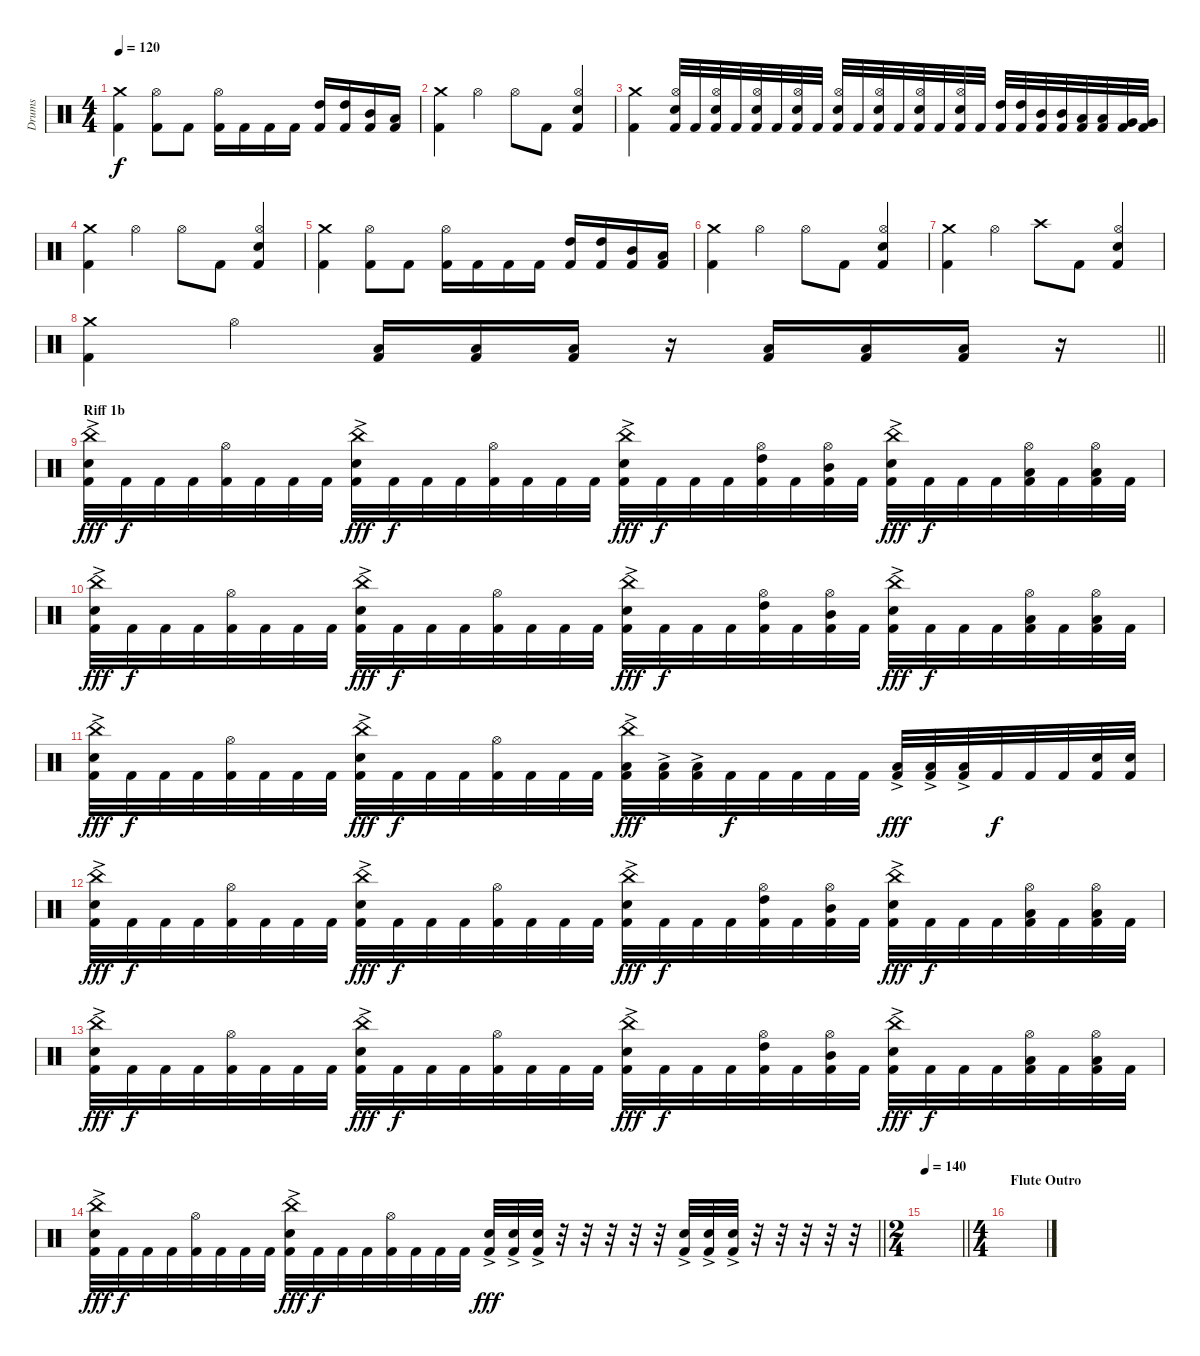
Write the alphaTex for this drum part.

\track ("Drums" "Drums") {instrument percussion}
\staff {score}
\articulation defaults
\ts (4 4)
\tempo 120
\clef neutral
\ks c
("Crash medium (hit)" "Kick (hit) 2").4{dy f} ("Hi-Hat (open)" "Kick (hit) 2").8 "Kick (hit) 2".8 ("Hi-Hat (open)" "Kick (hit) 2").16 "Kick (hit) 2".16 "Kick (hit) 2".16 "Kick (hit) 2".16 ("High Tom (hit)" "Kick (hit) 2").16 ("High Tom (hit)" "Kick (hit) 2").16 ("Mid Tom (hit)" "Kick (hit) 2").16 ("Low Tom (hit)" "Kick (hit) 2").16 |
("Crash medium (hit)" "Kick (hit) 2").4 "Hi-Hat (open)".4 "Hi-Hat (open)".8 "Kick (hit) 2".8 ("Hi-Hat (open)" "Electric Snare (hit)" "Kick (hit) 2").4 |
("Crash medium (hit)" "Kick (hit) 2").4 ("Hi-Hat (open)" "Electric Snare (hit)" "Kick (hit) 2").32 "Kick (hit) 2".32 ("Hi-Hat (open)" "Electric Snare (hit)" "Kick (hit) 2").32 "Kick (hit) 2".32 ("Hi-Hat (open)" "Electric Snare (hit)" "Kick (hit) 2").32 "Kick (hit) 2".32 ("Hi-Hat (open)" "Electric Snare (hit)" "Kick (hit) 2").32 "Kick (hit) 2".32 ("Hi-Hat (open)" "Electric Snare (hit)" "Kick (hit) 2").32 "Kick (hit) 2".32 ("Hi-Hat (open)" "Electric Snare (hit)" "Kick (hit) 2").32 "Kick (hit) 2".32 ("Hi-Hat (open)" "Electric Snare (hit)" "Kick (hit) 2").32 "Kick (hit) 2".32 ("Hi-Hat (open)" "Electric Snare (hit)" "Kick (hit) 2").32 "Kick (hit) 2".32 ("High Tom (hit)" "Kick (hit) 2").32 ("High Tom (hit)" "Kick (hit) 2").32 ("Mid Tom (hit)" "Kick (hit) 2").32 ("Mid Tom (hit)" "Kick (hit) 2").32 ("Low Tom (hit)" "Kick (hit) 2").32 ("Low Tom (hit)" "Kick (hit) 2").32 ("Very Low Tom (hit)" "Kick (hit) 2").32 ("Very Low Tom (hit)" "Kick (hit) 2").32 |
("Crash medium (hit)" "Kick (hit) 2").4 "Hi-Hat (open)".4 "Hi-Hat (open)".8 "Kick (hit) 2".8 ("Hi-Hat (open)" "Electric Snare (hit)" "Kick (hit) 2").4 |
("Crash medium (hit)" "Kick (hit) 2").4 ("Hi-Hat (open)" "Kick (hit) 2").8 "Kick (hit) 2".8 ("Hi-Hat (open)" "Kick (hit) 2").16 "Kick (hit) 2".16 "Kick (hit) 2".16 "Kick (hit) 2".16 ("High Tom (hit)" "Kick (hit) 2").16 ("High Tom (hit)" "Kick (hit) 2").16 ("Mid Tom (hit)" "Kick (hit) 2").16 ("Low Tom (hit)" "Kick (hit) 2").16 |
("Crash medium (hit)" "Kick (hit) 2").4 "Hi-Hat (open)".4 "Hi-Hat (open)".8 "Kick (hit) 2".8 ("Hi-Hat (open)" "Electric Snare (hit)" "Kick (hit) 2").4 |
("Crash medium (hit)" "Kick (hit) 2").4 "Hi-Hat (open)".4 "Crash high (hit)".8 "Kick (hit) 2".8 ("Hi-Hat (open)" "Electric Snare (hit)" "Kick (hit) 2").4 |
\barLineRight lightlight
("Crash medium (hit)" "Kick (hit) 2").4 "Hi-Hat (open)".4 ("Low Tom (hit)" "Kick (hit) 2").16 ("Low Tom (hit)" "Kick (hit) 2").16 ("Low Tom (hit)" "Kick (hit) 2").16 r.16 ("Low Tom (hit)" "Kick (hit) 2").16 ("Low Tom (hit)" "Kick (hit) 2").16 ("Low Tom (hit)" "Kick (hit) 2").16 r.16 |
\section ("" "Riff 1b")
("China (hit)"{ac} "Electric Snare (hit)" "Kick (hit) 2").32{dy fff} "Kick (hit) 2".32{dy f} "Kick (hit) 2".32 "Kick (hit) 2".32 ("Hi-Hat (open)" "Kick (hit) 2").32 "Kick (hit) 2".32 "Kick (hit) 2".32 "Kick (hit) 2".32 ("China (hit)"{ac} "Electric Snare (hit)" "Kick (hit) 2").32{dy fff} "Kick (hit) 2".32{dy f} "Kick (hit) 2".32 "Kick (hit) 2".32 ("Hi-Hat (open)" "Kick (hit) 2").32 "Kick (hit) 2".32 "Kick (hit) 2".32 "Kick (hit) 2".32 ("China (hit)"{ac} "Electric Snare (hit)" "Kick (hit) 2").32{dy fff} "Kick (hit) 2".32{dy f} "Kick (hit) 2".32 "Kick (hit) 2".32 ("Hi-Hat (open)" "High Tom (hit)" "Kick (hit) 2").32 "Kick (hit) 2".32 ("Hi-Hat (open)" "Mid Tom (hit)" "Kick (hit) 2").32 "Kick (hit) 2".32 ("China (hit)"{ac} "Electric Snare (hit)" "Kick (hit) 2").32{dy fff} "Kick (hit) 2".32{dy f} "Kick (hit) 2".32 "Kick (hit) 2".32 ("Hi-Hat (open)" "Low Tom (hit)" "Kick (hit) 2").32 "Kick (hit) 2".32 ("Hi-Hat (open)" "Low Tom (hit)" "Kick (hit) 2").32 "Kick (hit) 2".32 |
("China (hit)"{ac} "Electric Snare (hit)" "Kick (hit) 2").32{dy fff} "Kick (hit) 2".32{dy f} "Kick (hit) 2".32 "Kick (hit) 2".32 ("Hi-Hat (open)" "Kick (hit) 2").32 "Kick (hit) 2".32 "Kick (hit) 2".32 "Kick (hit) 2".32 ("China (hit)"{ac} "Electric Snare (hit)" "Kick (hit) 2").32{dy fff} "Kick (hit) 2".32{dy f} "Kick (hit) 2".32 "Kick (hit) 2".32 ("Hi-Hat (open)" "Kick (hit) 2").32 "Kick (hit) 2".32 "Kick (hit) 2".32 "Kick (hit) 2".32 ("China (hit)"{ac} "Electric Snare (hit)" "Kick (hit) 2").32{dy fff} "Kick (hit) 2".32{dy f} "Kick (hit) 2".32 "Kick (hit) 2".32 ("Hi-Hat (open)" "High Tom (hit)" "Kick (hit) 2").32 "Kick (hit) 2".32 ("Hi-Hat (open)" "Mid Tom (hit)" "Kick (hit) 2").32 "Kick (hit) 2".32 ("China (hit)"{ac} "Electric Snare (hit)" "Kick (hit) 2").32{dy fff} "Kick (hit) 2".32{dy f} "Kick (hit) 2".32 "Kick (hit) 2".32 ("Hi-Hat (open)" "Low Tom (hit)" "Kick (hit) 2").32 "Kick (hit) 2".32 ("Hi-Hat (open)" "Low Tom (hit)" "Kick (hit) 2").32 "Kick (hit) 2".32 |
("China (hit)"{ac} "Electric Snare (hit)" "Kick (hit) 2").32{dy fff} "Kick (hit) 2".32{dy f} "Kick (hit) 2".32 "Kick (hit) 2".32 ("Hi-Hat (open)" "Kick (hit) 2").32 "Kick (hit) 2".32 "Kick (hit) 2".32 "Kick (hit) 2".32 ("China (hit)"{ac} "Electric Snare (hit)" "Kick (hit) 2").32{dy fff} "Kick (hit) 2".32{dy f} "Kick (hit) 2".32 "Kick (hit) 2".32 ("Hi-Hat (open)" "Kick (hit) 2").32 "Kick (hit) 2".32 "Kick (hit) 2".32 "Kick (hit) 2".32 ("China (hit)"{ac} "Low Tom (hit)"{ac} "Kick (hit) 2").32{dy fff} ("Low Tom (hit)"{ac} "Kick (hit) 2").32 ("Low Tom (hit)"{ac} "Kick (hit) 2").32 "Kick (hit) 2".32{dy f} "Kick (hit) 2".32 "Kick (hit) 2".32 "Kick (hit) 2".32 "Kick (hit) 2".32 ("Low Tom (hit)"{ac} "Kick (hit) 2").32{dy fff} ("Low Tom (hit)"{ac} "Kick (hit) 2").32 ("Low Tom (hit)"{ac} "Kick (hit) 2").32 "Kick (hit) 2".32{dy f} "Kick (hit) 2".32 "Kick (hit) 2".32 ("Electric Snare (hit)" "Kick (hit) 2").32 ("Electric Snare (hit)" "Kick (hit) 2").32 |
("China (hit)"{ac} "Electric Snare (hit)" "Kick (hit) 2").32{dy fff} "Kick (hit) 2".32{dy f} "Kick (hit) 2".32 "Kick (hit) 2".32 ("Hi-Hat (open)" "Kick (hit) 2").32 "Kick (hit) 2".32 "Kick (hit) 2".32 "Kick (hit) 2".32 ("China (hit)"{ac} "Electric Snare (hit)" "Kick (hit) 2").32{dy fff} "Kick (hit) 2".32{dy f} "Kick (hit) 2".32 "Kick (hit) 2".32 ("Hi-Hat (open)" "Kick (hit) 2").32 "Kick (hit) 2".32 "Kick (hit) 2".32 "Kick (hit) 2".32 ("China (hit)"{ac} "Electric Snare (hit)" "Kick (hit) 2").32{dy fff} "Kick (hit) 2".32{dy f} "Kick (hit) 2".32 "Kick (hit) 2".32 ("Hi-Hat (open)" "High Tom (hit)" "Kick (hit) 2").32 "Kick (hit) 2".32 ("Hi-Hat (open)" "Mid Tom (hit)" "Kick (hit) 2").32 "Kick (hit) 2".32 ("China (hit)"{ac} "Electric Snare (hit)" "Kick (hit) 2").32{dy fff} "Kick (hit) 2".32{dy f} "Kick (hit) 2".32 "Kick (hit) 2".32 ("Hi-Hat (open)" "Low Tom (hit)" "Kick (hit) 2").32 "Kick (hit) 2".32 ("Hi-Hat (open)" "Low Tom (hit)" "Kick (hit) 2").32 "Kick (hit) 2".32 |
("China (hit)"{ac} "Electric Snare (hit)" "Kick (hit) 2").32{dy fff} "Kick (hit) 2".32{dy f} "Kick (hit) 2".32 "Kick (hit) 2".32 ("Hi-Hat (open)" "Kick (hit) 2").32 "Kick (hit) 2".32 "Kick (hit) 2".32 "Kick (hit) 2".32 ("China (hit)"{ac} "Electric Snare (hit)" "Kick (hit) 2").32{dy fff} "Kick (hit) 2".32{dy f} "Kick (hit) 2".32 "Kick (hit) 2".32 ("Hi-Hat (open)" "Kick (hit) 2").32 "Kick (hit) 2".32 "Kick (hit) 2".32 "Kick (hit) 2".32 ("China (hit)"{ac} "Electric Snare (hit)" "Kick (hit) 2").32{dy fff} "Kick (hit) 2".32{dy f} "Kick (hit) 2".32 "Kick (hit) 2".32 ("Hi-Hat (open)" "High Tom (hit)" "Kick (hit) 2").32 "Kick (hit) 2".32 ("Hi-Hat (open)" "Mid Tom (hit)" "Kick (hit) 2").32 "Kick (hit) 2".32 ("China (hit)"{ac} "Electric Snare (hit)" "Kick (hit) 2").32{dy fff} "Kick (hit) 2".32{dy f} "Kick (hit) 2".32 "Kick (hit) 2".32 ("Hi-Hat (open)" "Low Tom (hit)" "Kick (hit) 2").32 "Kick (hit) 2".32 ("Hi-Hat (open)" "Low Tom (hit)" "Kick (hit) 2").32 "Kick (hit) 2".32 |
\barLineRight lightlight
("China (hit)"{ac} "Electric Snare (hit)" "Kick (hit) 2").32{dy fff} "Kick (hit) 2".32{dy f} "Kick (hit) 2".32 "Kick (hit) 2".32 ("Hi-Hat (open)" "Kick (hit) 2").32 "Kick (hit) 2".32 "Kick (hit) 2".32 "Kick (hit) 2".32 ("China (hit)"{ac} "Electric Snare (hit)" "Kick (hit) 2").32{dy fff} "Kick (hit) 2".32{dy f} "Kick (hit) 2".32 "Kick (hit) 2".32 ("Hi-Hat (open)" "Kick (hit) 2").32 "Kick (hit) 2".32 "Kick (hit) 2".32 "Kick (hit) 2".32 ("Electric Snare (hit)"{ac} "Kick (hit) 2").32{dy fff} ("Electric Snare (hit)"{ac} "Kick (hit) 2").32 ("Electric Snare (hit)"{ac} "Kick (hit) 2").32 r.32 r.32 r.32 r.32 r.32 ("Electric Snare (hit)"{ac} "Kick (hit) 2").32 ("Electric Snare (hit)"{ac} "Kick (hit) 2").32 ("Electric Snare (hit)"{ac} "Kick (hit) 2").32 r.32 r.32 r.32 r.32 r.32 |
\ts (2 4)
\tempo 140
\barLineRight lightlight
|
\ts (4 4)
\section ("" "Flute Outro")
